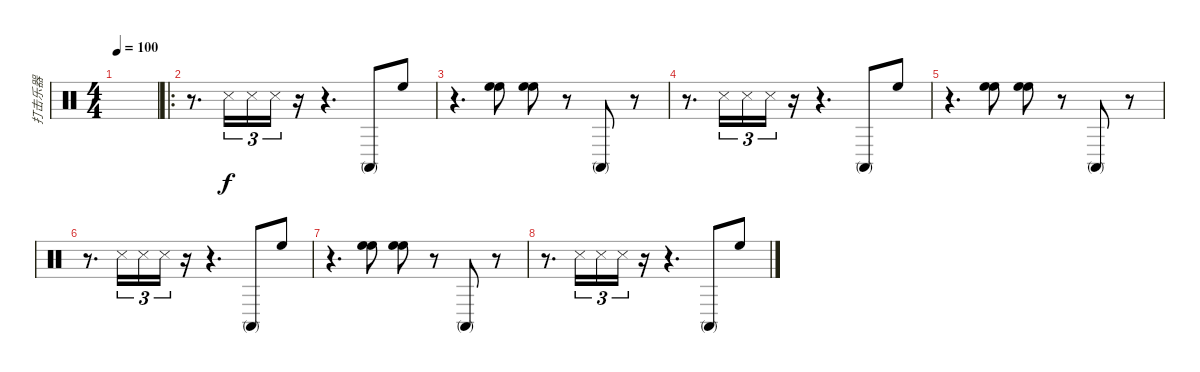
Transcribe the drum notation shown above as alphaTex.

\track ("打击乐器" "打击乐器") {instrument percussion bank 4}
\staff {score}
\articulation defaults
\ts (4 4)
\tempo 100
\clef neutral
\ks c
|
\ro
r.8{d} "Metronome (hit)".16{tu (3 2)} "Metronome (hit)".16{tu (3 2)} "Metronome (hit)".16{tu (3 2)} r.16 r.4{d} "Conga high (mute)".8 "High Floor Tom (hit)".8 |
r.4{d} ("High Floor Tom (hit)" "High Floor Tom (hit)").8 ("High Floor Tom (hit)" "High Floor Tom (hit)").8 r.8 "Conga high (mute)".8 r.8 |
r.8{d} "Metronome (hit)".16{tu (3 2)} "Metronome (hit)".16{tu (3 2)} "Metronome (hit)".16{tu (3 2)} r.16 r.4{d} "Conga high (mute)".8 "High Floor Tom (hit)".8 |
r.4{d} ("High Floor Tom (hit)" "High Floor Tom (hit)").8 ("High Floor Tom (hit)" "High Floor Tom (hit)").8 r.8 "Conga high (mute)".8 r.8 |
r.8{d} "Metronome (hit)".16{tu (3 2)} "Metronome (hit)".16{tu (3 2)} "Metronome (hit)".16{tu (3 2)} r.16 r.4{d} "Conga high (mute)".8 "High Floor Tom (hit)".8 |
r.4{d} ("High Floor Tom (hit)" "High Floor Tom (hit)").8 ("High Floor Tom (hit)" "High Floor Tom (hit)").8 r.8 "Conga high (mute)".8 r.8 |
r.8{d} "Metronome (hit)".16{tu (3 2)} "Metronome (hit)".16{tu (3 2)} "Metronome (hit)".16{tu (3 2)} r.16 r.4{d} "Conga high (mute)".8 "High Floor Tom (hit)".8
